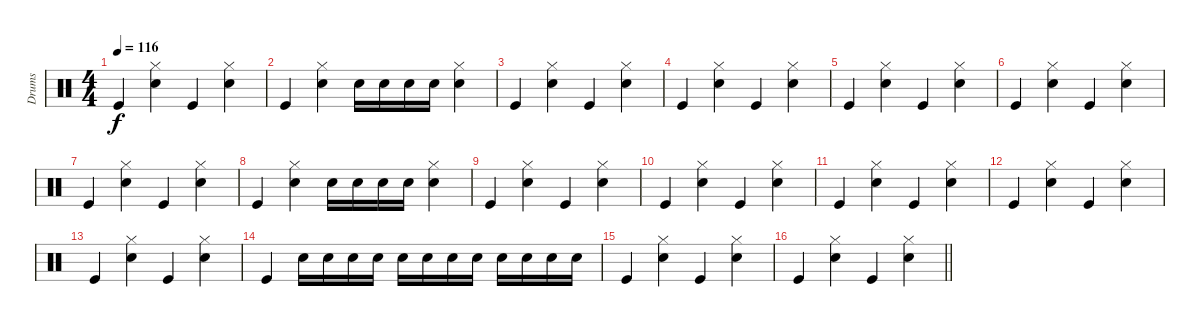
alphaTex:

\track ("Drums" "Drums") {instrument percussion}
\staff {score}
\articulation defaults
\ts (4 4)
\tempo 116
\clef neutral
\ks c "Kick (hit)".4{dy f}
("Hi-Hat (closed)" "Snare (hit) 2").4 "Kick (hit)".4 ("Hi-Hat (closed)" "Snare (hit) 2").4 |
"Kick (hit)".4 ("Hi-Hat (closed)" "Snare (hit) 2").4 "Snare (hit) 2".16 "Snare (hit) 2".16 "Snare (hit) 2".16 "Snare (hit) 2".16 ("Hi-Hat (closed)" "Snare (hit) 2").4 |
"Kick (hit)".4 ("Hi-Hat (closed)" "Snare (hit) 2").4 "Kick (hit)".4 ("Hi-Hat (closed)" "Snare (hit) 2").4 |
"Kick (hit)".4 ("Hi-Hat (closed)" "Snare (hit) 2").4 "Kick (hit)".4 ("Hi-Hat (closed)" "Snare (hit) 2").4 |
"Kick (hit)".4 ("Hi-Hat (closed)" "Snare (hit) 2").4 "Kick (hit)".4 ("Hi-Hat (closed)" "Snare (hit) 2").4 |
"Kick (hit)".4 ("Hi-Hat (closed)" "Snare (hit) 2").4 "Kick (hit)".4 ("Hi-Hat (closed)" "Snare (hit) 2").4 |
"Kick (hit)".4 ("Hi-Hat (closed)" "Snare (hit) 2").4 "Kick (hit)".4 ("Hi-Hat (closed)" "Snare (hit) 2").4 |
"Kick (hit)".4 ("Hi-Hat (closed)" "Snare (hit) 2").4 "Snare (hit) 2".16 "Snare (hit) 2".16 "Snare (hit) 2".16 "Snare (hit) 2".16 ("Hi-Hat (closed)" "Snare (hit) 2").4 |
"Kick (hit)".4 ("Hi-Hat (closed)" "Snare (hit) 2").4 "Kick (hit)".4 ("Hi-Hat (closed)" "Snare (hit) 2").4 |
"Kick (hit)".4 ("Hi-Hat (closed)" "Snare (hit) 2").4 "Kick (hit)".4 ("Hi-Hat (closed)" "Snare (hit) 2").4 |
"Kick (hit)".4 ("Hi-Hat (closed)" "Snare (hit) 2").4 "Kick (hit)".4 ("Hi-Hat (closed)" "Snare (hit) 2").4 |
"Kick (hit)".4 ("Hi-Hat (closed)" "Snare (hit) 2").4 "Kick (hit)".4 ("Hi-Hat (closed)" "Snare (hit) 2").4 |
"Kick (hit)".4 ("Hi-Hat (closed)" "Snare (hit) 2").4 "Kick (hit)".4 ("Hi-Hat (closed)" "Snare (hit) 2").4 |
"Kick (hit)".4 "Snare (hit) 2".16 "Snare (hit) 2".16 "Snare (hit) 2".16 "Snare (hit) 2".16 "Snare (hit) 2".16 "Snare (hit) 2".16 "Snare (hit) 2".16 "Snare (hit) 2".16 "Snare (hit) 2".16 "Snare (hit) 2".16 "Snare (hit) 2".16 "Snare (hit) 2".16 |
"Kick (hit)".4 ("Hi-Hat (closed)" "Snare (hit) 2").4 "Kick (hit)".4 ("Hi-Hat (closed)" "Snare (hit) 2").4 |
\barLineRight lightlight "Kick (hit)".4
("Hi-Hat (closed)" "Snare (hit) 2").4 "Kick (hit)".4 ("Hi-Hat (closed)" "Snare (hit) 2").4
